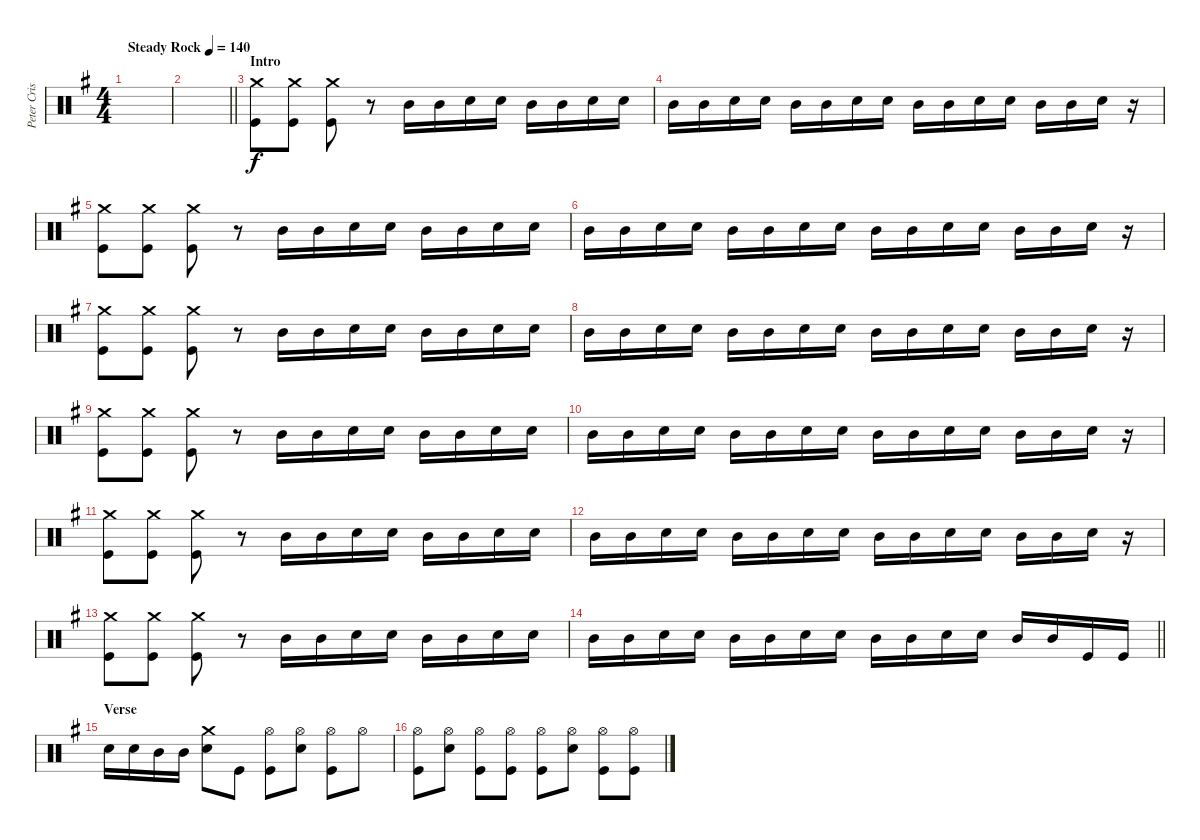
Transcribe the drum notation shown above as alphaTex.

\track ("Peter Criss" "Peter Cris") {instrument percussion}
\staff {score}
\articulation defaults
\ts (4 4)
\tempo (140 "Steady Rock")
\clef neutral
\ks g
|
\barLineRight lightlight
|
\section ("" "Intro")
("Crash medium (hit)" "Kick (hit)").8 ("Crash medium (hit)" "Kick (hit)").8 ("Crash medium (hit)" "Kick (hit)").8 r.8 "Mid Tom (hit)".16 "Mid Tom (hit)".16 "Snare (hit) 2".16 "Snare (hit) 2".16 "Mid Tom (hit)".16 "Mid Tom (hit)".16 "Snare (hit) 2".16 "Snare (hit) 2".16 |
"Mid Tom (hit)".16 "Mid Tom (hit)".16 "Snare (hit) 2".16 "Snare (hit) 2".16 "Mid Tom (hit)".16 "Mid Tom (hit)".16 "Snare (hit) 2".16 "Snare (hit) 2".16 "Mid Tom (hit)".16 "Mid Tom (hit)".16 "Snare (hit) 2".16 "Snare (hit) 2".16 "Mid Tom (hit)".16 "Mid Tom (hit)".16 "Snare (hit) 2".16 r.16 |
("Crash medium (hit)" "Kick (hit)").8 ("Crash medium (hit)" "Kick (hit)").8 ("Crash medium (hit)" "Kick (hit)").8 r.8 "Mid Tom (hit)".16 "Mid Tom (hit)".16 "Snare (hit) 2".16 "Snare (hit) 2".16 "Mid Tom (hit)".16 "Mid Tom (hit)".16 "Snare (hit) 2".16 "Snare (hit) 2".16 |
"Mid Tom (hit)".16 "Mid Tom (hit)".16 "Snare (hit) 2".16 "Snare (hit) 2".16 "Mid Tom (hit)".16 "Mid Tom (hit)".16 "Snare (hit) 2".16 "Snare (hit) 2".16 "Mid Tom (hit)".16 "Mid Tom (hit)".16 "Snare (hit) 2".16 "Snare (hit) 2".16 "Mid Tom (hit)".16 "Mid Tom (hit)".16 "Snare (hit) 2".16 r.16 |
("Crash medium (hit)" "Kick (hit)").8 ("Crash medium (hit)" "Kick (hit)").8 ("Crash medium (hit)" "Kick (hit)").8 r.8 "Mid Tom (hit)".16 "Mid Tom (hit)".16 "Snare (hit) 2".16 "Snare (hit) 2".16 "Mid Tom (hit)".16 "Mid Tom (hit)".16 "Snare (hit) 2".16 "Snare (hit) 2".16 |
"Mid Tom (hit)".16 "Mid Tom (hit)".16 "Snare (hit) 2".16 "Snare (hit) 2".16 "Mid Tom (hit)".16 "Mid Tom (hit)".16 "Snare (hit) 2".16 "Snare (hit) 2".16 "Mid Tom (hit)".16 "Mid Tom (hit)".16 "Snare (hit) 2".16 "Snare (hit) 2".16 "Mid Tom (hit)".16 "Mid Tom (hit)".16 "Snare (hit) 2".16 r.16 |
("Crash medium (hit)" "Kick (hit)").8 ("Crash medium (hit)" "Kick (hit)").8 ("Crash medium (hit)" "Kick (hit)").8 r.8 "Mid Tom (hit)".16 "Mid Tom (hit)".16 "Snare (hit) 2".16 "Snare (hit) 2".16 "Mid Tom (hit)".16 "Mid Tom (hit)".16 "Snare (hit) 2".16 "Snare (hit) 2".16 |
"Mid Tom (hit)".16 "Mid Tom (hit)".16 "Snare (hit) 2".16 "Snare (hit) 2".16 "Mid Tom (hit)".16 "Mid Tom (hit)".16 "Snare (hit) 2".16 "Snare (hit) 2".16 "Mid Tom (hit)".16 "Mid Tom (hit)".16 "Snare (hit) 2".16 "Snare (hit) 2".16 "Mid Tom (hit)".16 "Mid Tom (hit)".16 "Snare (hit) 2".16 r.16 |
("Crash medium (hit)" "Kick (hit)").8 ("Crash medium (hit)" "Kick (hit)").8 ("Crash medium (hit)" "Kick (hit)").8 r.8 "Mid Tom (hit)".16 "Mid Tom (hit)".16 "Snare (hit) 2".16 "Snare (hit) 2".16 "Mid Tom (hit)".16 "Mid Tom (hit)".16 "Snare (hit) 2".16 "Snare (hit) 2".16 |
"Mid Tom (hit)".16 "Mid Tom (hit)".16 "Snare (hit) 2".16 "Snare (hit) 2".16 "Mid Tom (hit)".16 "Mid Tom (hit)".16 "Snare (hit) 2".16 "Snare (hit) 2".16 "Mid Tom (hit)".16 "Mid Tom (hit)".16 "Snare (hit) 2".16 "Snare (hit) 2".16 "Mid Tom (hit)".16 "Mid Tom (hit)".16 "Snare (hit) 2".16 r.16 |
("Crash medium (hit)" "Kick (hit)").8 ("Crash medium (hit)" "Kick (hit)").8 ("Crash medium (hit)" "Kick (hit)").8 r.8 "Mid Tom (hit)".16 "Mid Tom (hit)".16 "Snare (hit) 2".16 "Snare (hit) 2".16 "Mid Tom (hit)".16 "Mid Tom (hit)".16 "Snare (hit) 2".16 "Snare (hit) 2".16 |
\barLineRight lightlight "Mid Tom (hit)".16 "Mid Tom (hit)".16 "Snare (hit) 2".16 "Snare (hit) 2".16 "Mid Tom (hit)".16 "Mid Tom (hit)".16 "Snare (hit) 2".16 "Snare (hit) 2".16 "Mid Tom (hit)".16 "Mid Tom (hit)".16 "Snare (hit) 2".16 "Snare (hit) 2".16 "Mid Tom (hit)".16 "Mid Tom (hit)".16 "Kick (hit)".16 "Kick (hit)".16
|
\section ("" "Verse")
"Snare (hit) 2".16 "Snare (hit) 2".16 "Mid Tom (hit)".16 "Mid Tom (hit)".16 ("Crash medium (hit)" "Snare (hit) 2").8 "Kick (hit)".8 ("Hi-Hat (open)" "Kick (hit)").8 ("Hi-Hat (open)" "Snare (hit) 2").8 ("Hi-Hat (open)" "Kick (hit)").8 "Hi-Hat (open)".8 |
("Hi-Hat (open)" "Kick (hit)").8 ("Hi-Hat (open)" "Snare (hit) 2").8 ("Hi-Hat (open)" "Kick (hit)").8 ("Hi-Hat (open)" "Kick (hit)").8 ("Hi-Hat (open)" "Kick (hit)").8 ("Hi-Hat (open)" "Snare (hit) 2").8 ("Hi-Hat (open)" "Kick (hit)").8 ("Hi-Hat (open)" "Kick (hit)").8
